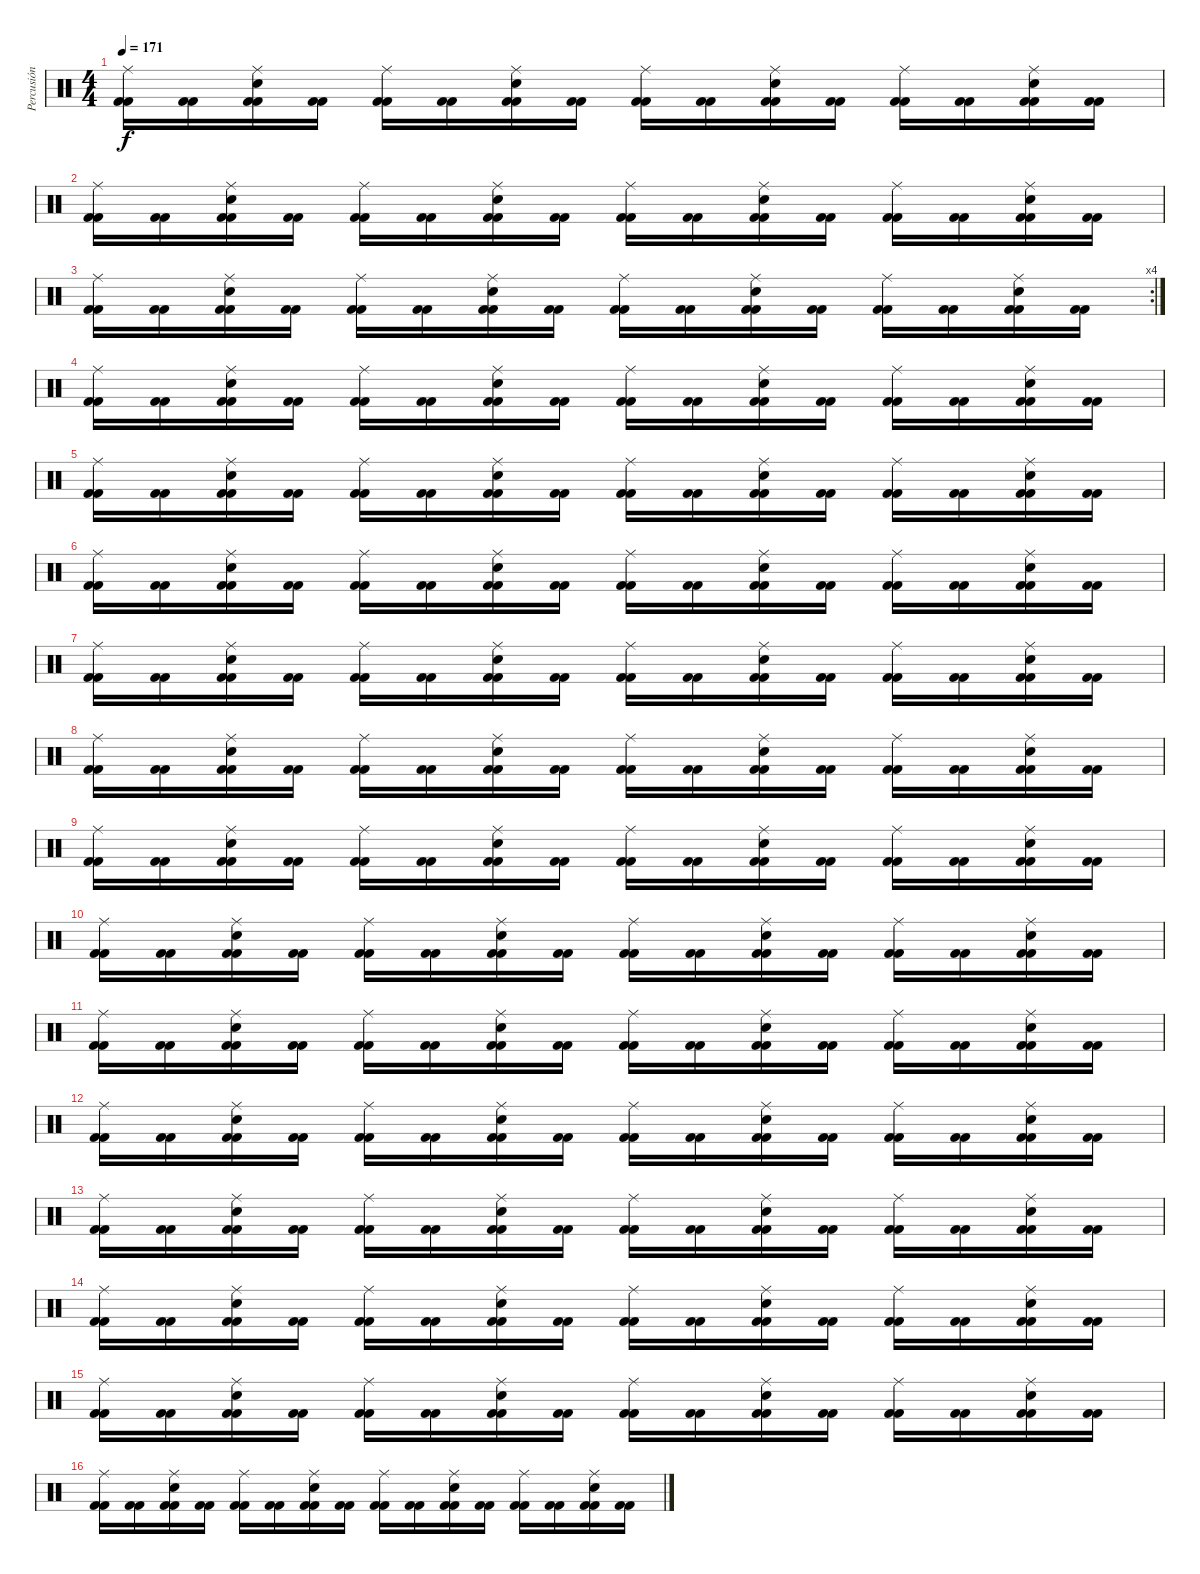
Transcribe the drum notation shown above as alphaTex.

\track ("Percusión" "Percusión") {instrument percussion}
\staff {score}
\articulation defaults
\ts (4 4)
\tempo 171
\clef neutral
\ks c
("Kick (hit) 2" "Kick (hit) 2" "Ride (middle)").16{dy f} ("Kick (hit) 2" "Kick (hit) 2").16 ("Kick (hit) 2" "Kick (hit) 2" "Electric Snare (hit)" "Ride (middle)").16 ("Kick (hit) 2" "Kick (hit) 2").16 ("Kick (hit) 2" "Kick (hit) 2" "Ride (middle)").16 ("Kick (hit) 2" "Kick (hit) 2").16 ("Kick (hit) 2" "Kick (hit) 2" "Electric Snare (hit)" "Ride (middle)").16 ("Kick (hit) 2" "Kick (hit) 2").16 ("Kick (hit) 2" "Kick (hit) 2" "Ride (middle)").16 ("Kick (hit) 2" "Kick (hit) 2").16 ("Kick (hit) 2" "Kick (hit) 2" "Electric Snare (hit)" "Ride (middle)").16 ("Kick (hit) 2" "Kick (hit) 2").16 ("Kick (hit) 2" "Kick (hit) 2" "Ride (middle)").16 ("Kick (hit) 2" "Kick (hit) 2").16 ("Kick (hit) 2" "Kick (hit) 2" "Electric Snare (hit)" "Ride (middle)").16 ("Kick (hit) 2" "Kick (hit) 2").16 |
("Kick (hit) 2" "Kick (hit) 2" "Ride (middle)").16 ("Kick (hit) 2" "Kick (hit) 2").16 ("Kick (hit) 2" "Kick (hit) 2" "Electric Snare (hit)" "Ride (middle)").16 ("Kick (hit) 2" "Kick (hit) 2").16 ("Kick (hit) 2" "Kick (hit) 2" "Ride (middle)").16 ("Kick (hit) 2" "Kick (hit) 2").16 ("Kick (hit) 2" "Kick (hit) 2" "Electric Snare (hit)" "Ride (middle)").16 ("Kick (hit) 2" "Kick (hit) 2").16 ("Kick (hit) 2" "Kick (hit) 2" "Ride (middle)").16 ("Kick (hit) 2" "Kick (hit) 2").16 ("Kick (hit) 2" "Kick (hit) 2" "Electric Snare (hit)" "Ride (middle)").16 ("Kick (hit) 2" "Kick (hit) 2").16 ("Kick (hit) 2" "Kick (hit) 2" "Ride (middle)").16 ("Kick (hit) 2" "Kick (hit) 2").16 ("Kick (hit) 2" "Kick (hit) 2" "Electric Snare (hit)" "Ride (middle)").16 ("Kick (hit) 2" "Kick (hit) 2").16 |
\rc 4
("Kick (hit) 2" "Kick (hit) 2" "Ride (middle)").16 ("Kick (hit) 2" "Kick (hit) 2").16 ("Kick (hit) 2" "Kick (hit) 2" "Electric Snare (hit)" "Ride (middle)").16 ("Kick (hit) 2" "Kick (hit) 2").16 ("Kick (hit) 2" "Kick (hit) 2" "Ride (middle)").16 ("Kick (hit) 2" "Kick (hit) 2").16 ("Kick (hit) 2" "Kick (hit) 2" "Electric Snare (hit)" "Ride (middle)").16 ("Kick (hit) 2" "Kick (hit) 2").16 ("Kick (hit) 2" "Kick (hit) 2" "Ride (middle)").16 ("Kick (hit) 2" "Kick (hit) 2").16 ("Kick (hit) 2" "Kick (hit) 2" "Electric Snare (hit)" "Ride (middle)").16 ("Kick (hit) 2" "Kick (hit) 2").16 ("Kick (hit) 2" "Kick (hit) 2" "Ride (middle)").16 ("Kick (hit) 2" "Kick (hit) 2").16 ("Kick (hit) 2" "Kick (hit) 2" "Electric Snare (hit)" "Ride (middle)").16 ("Kick (hit) 2" "Kick (hit) 2").16 |
("Kick (hit) 2" "Kick (hit) 2" "Ride (middle)").16 ("Kick (hit) 2" "Kick (hit) 2").16 ("Kick (hit) 2" "Kick (hit) 2" "Electric Snare (hit)" "Ride (middle)").16 ("Kick (hit) 2" "Kick (hit) 2").16 ("Kick (hit) 2" "Kick (hit) 2" "Ride (middle)").16 ("Kick (hit) 2" "Kick (hit) 2").16 ("Kick (hit) 2" "Kick (hit) 2" "Electric Snare (hit)" "Ride (middle)").16 ("Kick (hit) 2" "Kick (hit) 2").16 ("Kick (hit) 2" "Kick (hit) 2" "Ride (middle)").16 ("Kick (hit) 2" "Kick (hit) 2").16 ("Kick (hit) 2" "Kick (hit) 2" "Electric Snare (hit)" "Ride (middle)").16 ("Kick (hit) 2" "Kick (hit) 2").16 ("Kick (hit) 2" "Kick (hit) 2" "Ride (middle)").16 ("Kick (hit) 2" "Kick (hit) 2").16 ("Kick (hit) 2" "Kick (hit) 2" "Electric Snare (hit)" "Ride (middle)").16 ("Kick (hit) 2" "Kick (hit) 2").16 |
("Kick (hit) 2" "Kick (hit) 2" "Ride (middle)").16 ("Kick (hit) 2" "Kick (hit) 2").16 ("Kick (hit) 2" "Kick (hit) 2" "Electric Snare (hit)" "Ride (middle)").16 ("Kick (hit) 2" "Kick (hit) 2").16 ("Kick (hit) 2" "Kick (hit) 2" "Ride (middle)").16 ("Kick (hit) 2" "Kick (hit) 2").16 ("Kick (hit) 2" "Kick (hit) 2" "Electric Snare (hit)" "Ride (middle)").16 ("Kick (hit) 2" "Kick (hit) 2").16 ("Kick (hit) 2" "Kick (hit) 2" "Ride (middle)").16 ("Kick (hit) 2" "Kick (hit) 2").16 ("Kick (hit) 2" "Kick (hit) 2" "Electric Snare (hit)" "Ride (middle)").16 ("Kick (hit) 2" "Kick (hit) 2").16 ("Kick (hit) 2" "Kick (hit) 2" "Ride (middle)").16 ("Kick (hit) 2" "Kick (hit) 2").16 ("Kick (hit) 2" "Kick (hit) 2" "Electric Snare (hit)" "Ride (middle)").16 ("Kick (hit) 2" "Kick (hit) 2").16 |
("Kick (hit) 2" "Kick (hit) 2" "Ride (middle)").16 ("Kick (hit) 2" "Kick (hit) 2").16 ("Kick (hit) 2" "Kick (hit) 2" "Electric Snare (hit)" "Ride (middle)").16 ("Kick (hit) 2" "Kick (hit) 2").16 ("Kick (hit) 2" "Kick (hit) 2" "Ride (middle)").16 ("Kick (hit) 2" "Kick (hit) 2").16 ("Kick (hit) 2" "Kick (hit) 2" "Electric Snare (hit)" "Ride (middle)").16 ("Kick (hit) 2" "Kick (hit) 2").16 ("Kick (hit) 2" "Kick (hit) 2" "Ride (middle)").16 ("Kick (hit) 2" "Kick (hit) 2").16 ("Kick (hit) 2" "Kick (hit) 2" "Electric Snare (hit)" "Ride (middle)").16 ("Kick (hit) 2" "Kick (hit) 2").16 ("Kick (hit) 2" "Kick (hit) 2" "Ride (middle)").16 ("Kick (hit) 2" "Kick (hit) 2").16 ("Kick (hit) 2" "Kick (hit) 2" "Electric Snare (hit)" "Ride (middle)").16 ("Kick (hit) 2" "Kick (hit) 2").16 |
("Kick (hit) 2" "Kick (hit) 2" "Ride (middle)").16 ("Kick (hit) 2" "Kick (hit) 2").16 ("Kick (hit) 2" "Kick (hit) 2" "Electric Snare (hit)" "Ride (middle)").16 ("Kick (hit) 2" "Kick (hit) 2").16 ("Kick (hit) 2" "Kick (hit) 2" "Ride (middle)").16 ("Kick (hit) 2" "Kick (hit) 2").16 ("Kick (hit) 2" "Kick (hit) 2" "Electric Snare (hit)" "Ride (middle)").16 ("Kick (hit) 2" "Kick (hit) 2").16 ("Kick (hit) 2" "Kick (hit) 2" "Ride (middle)").16 ("Kick (hit) 2" "Kick (hit) 2").16 ("Kick (hit) 2" "Kick (hit) 2" "Electric Snare (hit)" "Ride (middle)").16 ("Kick (hit) 2" "Kick (hit) 2").16 ("Kick (hit) 2" "Kick (hit) 2" "Ride (middle)").16 ("Kick (hit) 2" "Kick (hit) 2").16 ("Kick (hit) 2" "Kick (hit) 2" "Electric Snare (hit)" "Ride (middle)").16 ("Kick (hit) 2" "Kick (hit) 2").16 |
("Kick (hit) 2" "Kick (hit) 2" "Ride (middle)").16 ("Kick (hit) 2" "Kick (hit) 2").16 ("Kick (hit) 2" "Kick (hit) 2" "Electric Snare (hit)" "Ride (middle)").16 ("Kick (hit) 2" "Kick (hit) 2").16 ("Kick (hit) 2" "Kick (hit) 2" "Ride (middle)").16 ("Kick (hit) 2" "Kick (hit) 2").16 ("Kick (hit) 2" "Kick (hit) 2" "Electric Snare (hit)" "Ride (middle)").16 ("Kick (hit) 2" "Kick (hit) 2").16 ("Kick (hit) 2" "Kick (hit) 2" "Ride (middle)").16 ("Kick (hit) 2" "Kick (hit) 2").16 ("Kick (hit) 2" "Kick (hit) 2" "Electric Snare (hit)" "Ride (middle)").16 ("Kick (hit) 2" "Kick (hit) 2").16 ("Kick (hit) 2" "Kick (hit) 2" "Ride (middle)").16 ("Kick (hit) 2" "Kick (hit) 2").16 ("Kick (hit) 2" "Kick (hit) 2" "Electric Snare (hit)" "Ride (middle)").16 ("Kick (hit) 2" "Kick (hit) 2").16 |
("Kick (hit) 2" "Kick (hit) 2" "Ride (middle)").16 ("Kick (hit) 2" "Kick (hit) 2").16 ("Kick (hit) 2" "Kick (hit) 2" "Electric Snare (hit)" "Ride (middle)").16 ("Kick (hit) 2" "Kick (hit) 2").16 ("Kick (hit) 2" "Kick (hit) 2" "Ride (middle)").16 ("Kick (hit) 2" "Kick (hit) 2").16 ("Kick (hit) 2" "Kick (hit) 2" "Electric Snare (hit)" "Ride (middle)").16 ("Kick (hit) 2" "Kick (hit) 2").16 ("Kick (hit) 2" "Kick (hit) 2" "Ride (middle)").16 ("Kick (hit) 2" "Kick (hit) 2").16 ("Kick (hit) 2" "Kick (hit) 2" "Electric Snare (hit)" "Ride (middle)").16 ("Kick (hit) 2" "Kick (hit) 2").16 ("Kick (hit) 2" "Kick (hit) 2" "Ride (middle)").16 ("Kick (hit) 2" "Kick (hit) 2").16 ("Kick (hit) 2" "Kick (hit) 2" "Electric Snare (hit)" "Ride (middle)").16 ("Kick (hit) 2" "Kick (hit) 2").16 |
("Kick (hit) 2" "Kick (hit) 2" "Ride (middle)").16 ("Kick (hit) 2" "Kick (hit) 2").16 ("Kick (hit) 2" "Kick (hit) 2" "Electric Snare (hit)" "Ride (middle)").16 ("Kick (hit) 2" "Kick (hit) 2").16 ("Kick (hit) 2" "Kick (hit) 2" "Ride (middle)").16 ("Kick (hit) 2" "Kick (hit) 2").16 ("Kick (hit) 2" "Kick (hit) 2" "Electric Snare (hit)" "Ride (middle)").16 ("Kick (hit) 2" "Kick (hit) 2").16 ("Kick (hit) 2" "Kick (hit) 2" "Ride (middle)").16 ("Kick (hit) 2" "Kick (hit) 2").16 ("Kick (hit) 2" "Kick (hit) 2" "Electric Snare (hit)" "Ride (middle)").16 ("Kick (hit) 2" "Kick (hit) 2").16 ("Kick (hit) 2" "Kick (hit) 2" "Ride (middle)").16 ("Kick (hit) 2" "Kick (hit) 2").16 ("Kick (hit) 2" "Kick (hit) 2" "Electric Snare (hit)" "Ride (middle)").16 ("Kick (hit) 2" "Kick (hit) 2").16 |
("Kick (hit) 2" "Kick (hit) 2" "Ride (middle)").16 ("Kick (hit) 2" "Kick (hit) 2").16 ("Kick (hit) 2" "Kick (hit) 2" "Electric Snare (hit)" "Ride (middle)").16 ("Kick (hit) 2" "Kick (hit) 2").16 ("Kick (hit) 2" "Kick (hit) 2" "Ride (middle)").16 ("Kick (hit) 2" "Kick (hit) 2").16 ("Kick (hit) 2" "Kick (hit) 2" "Electric Snare (hit)" "Ride (middle)").16 ("Kick (hit) 2" "Kick (hit) 2").16 ("Kick (hit) 2" "Kick (hit) 2" "Ride (middle)").16 ("Kick (hit) 2" "Kick (hit) 2").16 ("Kick (hit) 2" "Kick (hit) 2" "Electric Snare (hit)" "Ride (middle)").16 ("Kick (hit) 2" "Kick (hit) 2").16 ("Kick (hit) 2" "Kick (hit) 2" "Ride (middle)").16 ("Kick (hit) 2" "Kick (hit) 2").16 ("Kick (hit) 2" "Kick (hit) 2" "Electric Snare (hit)" "Ride (middle)").16 ("Kick (hit) 2" "Kick (hit) 2").16 |
("Kick (hit) 2" "Kick (hit) 2" "Ride (middle)").16 ("Kick (hit) 2" "Kick (hit) 2").16 ("Kick (hit) 2" "Kick (hit) 2" "Electric Snare (hit)" "Ride (middle)").16 ("Kick (hit) 2" "Kick (hit) 2").16 ("Kick (hit) 2" "Kick (hit) 2" "Ride (middle)").16 ("Kick (hit) 2" "Kick (hit) 2").16 ("Kick (hit) 2" "Kick (hit) 2" "Electric Snare (hit)" "Ride (middle)").16 ("Kick (hit) 2" "Kick (hit) 2").16 ("Kick (hit) 2" "Kick (hit) 2" "Ride (middle)").16 ("Kick (hit) 2" "Kick (hit) 2").16 ("Kick (hit) 2" "Kick (hit) 2" "Electric Snare (hit)" "Ride (middle)").16 ("Kick (hit) 2" "Kick (hit) 2").16 ("Kick (hit) 2" "Kick (hit) 2" "Ride (middle)").16 ("Kick (hit) 2" "Kick (hit) 2").16 ("Kick (hit) 2" "Kick (hit) 2" "Electric Snare (hit)" "Ride (middle)").16 ("Kick (hit) 2" "Kick (hit) 2").16 |
("Kick (hit) 2" "Kick (hit) 2" "Ride (middle)").16 ("Kick (hit) 2" "Kick (hit) 2").16 ("Kick (hit) 2" "Kick (hit) 2" "Electric Snare (hit)" "Ride (middle)").16 ("Kick (hit) 2" "Kick (hit) 2").16 ("Kick (hit) 2" "Kick (hit) 2" "Ride (middle)").16 ("Kick (hit) 2" "Kick (hit) 2").16 ("Kick (hit) 2" "Kick (hit) 2" "Electric Snare (hit)" "Ride (middle)").16 ("Kick (hit) 2" "Kick (hit) 2").16 ("Kick (hit) 2" "Kick (hit) 2" "Ride (middle)").16 ("Kick (hit) 2" "Kick (hit) 2").16 ("Kick (hit) 2" "Kick (hit) 2" "Electric Snare (hit)" "Ride (middle)").16 ("Kick (hit) 2" "Kick (hit) 2").16 ("Kick (hit) 2" "Kick (hit) 2" "Ride (middle)").16 ("Kick (hit) 2" "Kick (hit) 2").16 ("Kick (hit) 2" "Kick (hit) 2" "Electric Snare (hit)" "Ride (middle)").16 ("Kick (hit) 2" "Kick (hit) 2").16 |
("Kick (hit) 2" "Kick (hit) 2" "Ride (middle)").16 ("Kick (hit) 2" "Kick (hit) 2").16 ("Kick (hit) 2" "Kick (hit) 2" "Electric Snare (hit)" "Ride (middle)").16 ("Kick (hit) 2" "Kick (hit) 2").16 ("Kick (hit) 2" "Kick (hit) 2" "Ride (middle)").16 ("Kick (hit) 2" "Kick (hit) 2").16 ("Kick (hit) 2" "Kick (hit) 2" "Electric Snare (hit)" "Ride (middle)").16 ("Kick (hit) 2" "Kick (hit) 2").16 ("Kick (hit) 2" "Kick (hit) 2" "Ride (middle)").16 ("Kick (hit) 2" "Kick (hit) 2").16 ("Kick (hit) 2" "Kick (hit) 2" "Electric Snare (hit)" "Ride (middle)").16 ("Kick (hit) 2" "Kick (hit) 2").16 ("Kick (hit) 2" "Kick (hit) 2" "Ride (middle)").16 ("Kick (hit) 2" "Kick (hit) 2").16 ("Kick (hit) 2" "Kick (hit) 2" "Electric Snare (hit)" "Ride (middle)").16 ("Kick (hit) 2" "Kick (hit) 2").16 |
("Kick (hit) 2" "Kick (hit) 2" "Ride (middle)").16 ("Kick (hit) 2" "Kick (hit) 2").16 ("Kick (hit) 2" "Kick (hit) 2" "Electric Snare (hit)" "Ride (middle)").16 ("Kick (hit) 2" "Kick (hit) 2").16 ("Kick (hit) 2" "Kick (hit) 2" "Ride (middle)").16 ("Kick (hit) 2" "Kick (hit) 2").16 ("Kick (hit) 2" "Kick (hit) 2" "Electric Snare (hit)" "Ride (middle)").16 ("Kick (hit) 2" "Kick (hit) 2").16 ("Kick (hit) 2" "Kick (hit) 2" "Ride (middle)").16 ("Kick (hit) 2" "Kick (hit) 2").16 ("Kick (hit) 2" "Kick (hit) 2" "Electric Snare (hit)" "Ride (middle)").16 ("Kick (hit) 2" "Kick (hit) 2").16 ("Kick (hit) 2" "Kick (hit) 2" "Ride (middle)").16 ("Kick (hit) 2" "Kick (hit) 2").16 ("Kick (hit) 2" "Kick (hit) 2" "Electric Snare (hit)" "Ride (middle)").16 ("Kick (hit) 2" "Kick (hit) 2").16 |
("Kick (hit) 2" "Kick (hit) 2" "Ride (middle)").16 ("Kick (hit) 2" "Kick (hit) 2").16 ("Kick (hit) 2" "Kick (hit) 2" "Electric Snare (hit)" "Ride (middle)").16 ("Kick (hit) 2" "Kick (hit) 2").16 ("Kick (hit) 2" "Kick (hit) 2" "Ride (middle)").16 ("Kick (hit) 2" "Kick (hit) 2").16 ("Kick (hit) 2" "Kick (hit) 2" "Electric Snare (hit)" "Ride (middle)").16 ("Kick (hit) 2" "Kick (hit) 2").16 ("Kick (hit) 2" "Kick (hit) 2" "Ride (middle)").16 ("Kick (hit) 2" "Kick (hit) 2").16 ("Kick (hit) 2" "Kick (hit) 2" "Electric Snare (hit)" "Ride (middle)").16 ("Kick (hit) 2" "Kick (hit) 2").16 ("Kick (hit) 2" "Kick (hit) 2" "Ride (middle)").16 ("Kick (hit) 2" "Kick (hit) 2").16 ("Kick (hit) 2" "Kick (hit) 2" "Electric Snare (hit)" "Ride (middle)").16 ("Kick (hit) 2" "Kick (hit) 2").16
